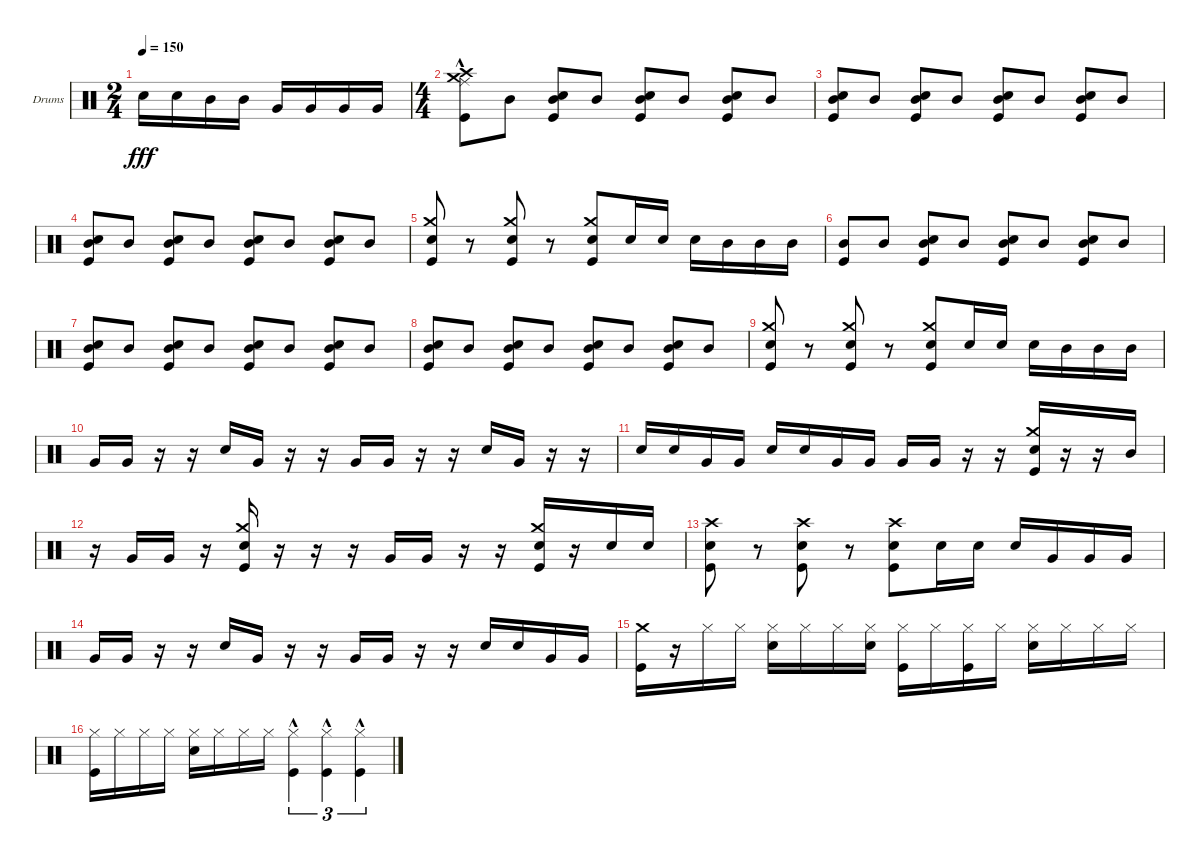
\defaultSystemsLayout 4
\bracketExtendMode groupsimilarinstruments
\firstSystemTrackNameOrientation horizontal
\otherSystemsTrackNameOrientation horizontal
\track ("Matt Helders" "Drums") {instrument percussion}
\staff {score}
\articulation defaults
\ts (2 4)
\tempo 150
\clef neutral
\ks c "Snare (hit) 2".16{dy fff} "Snare (hit) 2".16 "Mid Tom (hit)".16 "Mid Tom (hit)".16 "Very Low Tom (hit)".16 "Very Low Tom (hit)".16 "Very Low Tom (hit)".16 "Very Low Tom (hit)".16
|
\ts (4 4)
("Crash medium (hit)"{hac} "Kick (hit)" "Crash high (hit)" "Ride (middle)").8 "Mid Tom (hit)".8 ("Snare (hit) 2" "Mid Tom (hit)" "Kick (hit)").8 "Mid Tom (hit)".8 ("Snare (hit) 2" "Mid Tom (hit)" "Kick (hit)").8 "Mid Tom (hit)".8 ("Snare (hit) 2" "Mid Tom (hit)" "Kick (hit)").8 "Mid Tom (hit)".8 |
("Snare (hit) 2" "Mid Tom (hit)" "Kick (hit)").8 "Mid Tom (hit)".8 ("Snare (hit) 2" "Mid Tom (hit)" "Kick (hit)").8 "Mid Tom (hit)".8 ("Snare (hit) 2" "Mid Tom (hit)" "Kick (hit)").8 "Mid Tom (hit)".8 ("Snare (hit) 2" "Mid Tom (hit)" "Kick (hit)").8 "Mid Tom (hit)".8 |
("Snare (hit) 2" "Mid Tom (hit)" "Kick (hit)").8 "Mid Tom (hit)".8 ("Snare (hit) 2" "Mid Tom (hit)" "Kick (hit)").8 "Mid Tom (hit)".8 ("Snare (hit) 2" "Mid Tom (hit)" "Kick (hit)").8 "Mid Tom (hit)".8 ("Snare (hit) 2" "Mid Tom (hit)" "Kick (hit)").8 "Mid Tom (hit)".8 |
("Kick (hit)" "Snare (hit) 2" "Crash medium (hit)").8 r.8 ("Kick (hit)" "Snare (hit) 2" "Crash medium (hit)").8 r.8 ("Kick (hit)" "Snare (hit) 2" "Crash medium (hit)").8 "Snare (hit) 2".16 "Snare (hit) 2".16 "Snare (hit) 2".16 "Mid Tom (hit)".16 "Mid Tom (hit)".16 "Mid Tom (hit)".16 |
("Mid Tom (hit)" "Kick (hit)").8 "Mid Tom (hit)".8 ("Snare (hit) 2" "Mid Tom (hit)" "Kick (hit)").8 "Mid Tom (hit)".8 ("Snare (hit) 2" "Mid Tom (hit)" "Kick (hit)").8 "Mid Tom (hit)".8 ("Snare (hit) 2" "Mid Tom (hit)" "Kick (hit)").8 "Mid Tom (hit)".8 |
("Snare (hit) 2" "Mid Tom (hit)" "Kick (hit)").8 "Mid Tom (hit)".8 ("Snare (hit) 2" "Mid Tom (hit)" "Kick (hit)").8 "Mid Tom (hit)".8 ("Snare (hit) 2" "Mid Tom (hit)" "Kick (hit)").8 "Mid Tom (hit)".8 ("Snare (hit) 2" "Mid Tom (hit)" "Kick (hit)").8 "Mid Tom (hit)".8 |
("Snare (hit) 2" "Mid Tom (hit)" "Kick (hit)").8 "Mid Tom (hit)".8 ("Snare (hit) 2" "Mid Tom (hit)" "Kick (hit)").8 "Mid Tom (hit)".8 ("Snare (hit) 2" "Mid Tom (hit)" "Kick (hit)").8 "Mid Tom (hit)".8 ("Snare (hit) 2" "Mid Tom (hit)" "Kick (hit)").8 "Mid Tom (hit)".8 |
("Kick (hit)" "Snare (hit) 2" "Crash medium (hit)").8 r.8 ("Kick (hit)" "Snare (hit) 2" "Crash medium (hit)").8 r.8 ("Kick (hit)" "Snare (hit) 2" "Crash medium (hit)").8 "Snare (hit) 2".16 "Snare (hit) 2".16 "Snare (hit) 2".16 "Mid Tom (hit)".16 "Mid Tom (hit)".16 "Mid Tom (hit)".16 |
"Very Low Tom (hit)".16 "Very Low Tom (hit)".16 r.16 r.16 "Snare (hit) 2".16 "Very Low Tom (hit)".16 r.16 r.16 "Very Low Tom (hit)".16 "Very Low Tom (hit)".16 r.16 r.16 "Snare (hit) 2".16 "Very Low Tom (hit)".16 r.16 r.16 |
"Snare (hit) 2".16 "Snare (hit) 2".16 "Very Low Tom (hit)".16 "Very Low Tom (hit)".16 "Snare (hit) 2".16 "Snare (hit) 2".16 "Very Low Tom (hit)".16 "Very Low Tom (hit)".16 "Very Low Tom (hit)".16 "Very Low Tom (hit)".16 r.16 r.16 ("Crash medium (hit)" "Snare (hit) 2" "Kick (hit)").16 r.16 r.16 "Mid Tom (hit)".16 |
r.16 "Very Low Tom (hit)".16 "Very Low Tom (hit)".16 r.16 ("Crash medium (hit)" "Kick (hit)" "Snare (hit) 2").16 r.16 r.16 r.16 "Very Low Tom (hit)".16 "Very Low Tom (hit)".16 r.16 r.16 ("Crash medium (hit)" "Kick (hit)" "Snare (hit) 2").16 r.16 "Snare (hit) 2".16 "Snare (hit) 2".16 |
("Kick (hit)" "Snare (hit) 2" "Crash high (hit)").8 r.8 ("Kick (hit)" "Snare (hit) 2" "Crash high (hit)").8 r.8 ("Kick (hit)" "Snare (hit) 2" "Crash high (hit)").8 "Snare (hit) 2".16 "Snare (hit) 2".16 "Snare (hit) 2".16 "Very Low Tom (hit)".16 "Very Low Tom (hit)".16 "Very Low Tom (hit)".16 |
"Very Low Tom (hit)".16 "Very Low Tom (hit)".16 r.16 r.16 "Snare (hit) 2".16 "Very Low Tom (hit)".16 r.16 r.16 "Very Low Tom (hit)".16 "Very Low Tom (hit)".16 r.16 r.16 "Snare (hit) 2".16 "Snare (hit) 2".16 "Very Low Tom (hit)".16 "Very Low Tom (hit)".16 |
("Crash medium (hit)" "Kick (hit)").16 r.16 "Hi-Hat (closed)".16 "Hi-Hat (closed)".16 ("Hi-Hat (closed)" "Snare (hit) 2").16 "Hi-Hat (closed)".16 "Hi-Hat (closed)".16 ("Hi-Hat (closed)" "Snare (hit) 2").16 ("Hi-Hat (closed)" "Kick (hit)").16 "Hi-Hat (closed)".16 ("Hi-Hat (closed)" "Kick (hit)").16 "Hi-Hat (closed)".16 ("Hi-Hat (closed)" "Snare (hit) 2").16 "Hi-Hat (closed)".16 "Hi-Hat (closed)".16 "Hi-Hat (closed)".16 |
("Hi-Hat (closed)" "Kick (hit)").16 "Hi-Hat (closed)".16 "Hi-Hat (closed)".16 "Hi-Hat (closed)".16 ("Hi-Hat (closed)" "Snare (hit) 2").16 "Hi-Hat (closed)".16 "Hi-Hat (closed)".16 "Hi-Hat (closed)".16 ("Kick (hit)" "Hi-Hat (closed)"{hac}).4{tu (3 2)} ("Kick (hit)" "Hi-Hat (closed)"{hac}).4{tu (3 2)} ("Kick (hit)" "Hi-Hat (closed)"{hac}).4{tu (3 2)}
